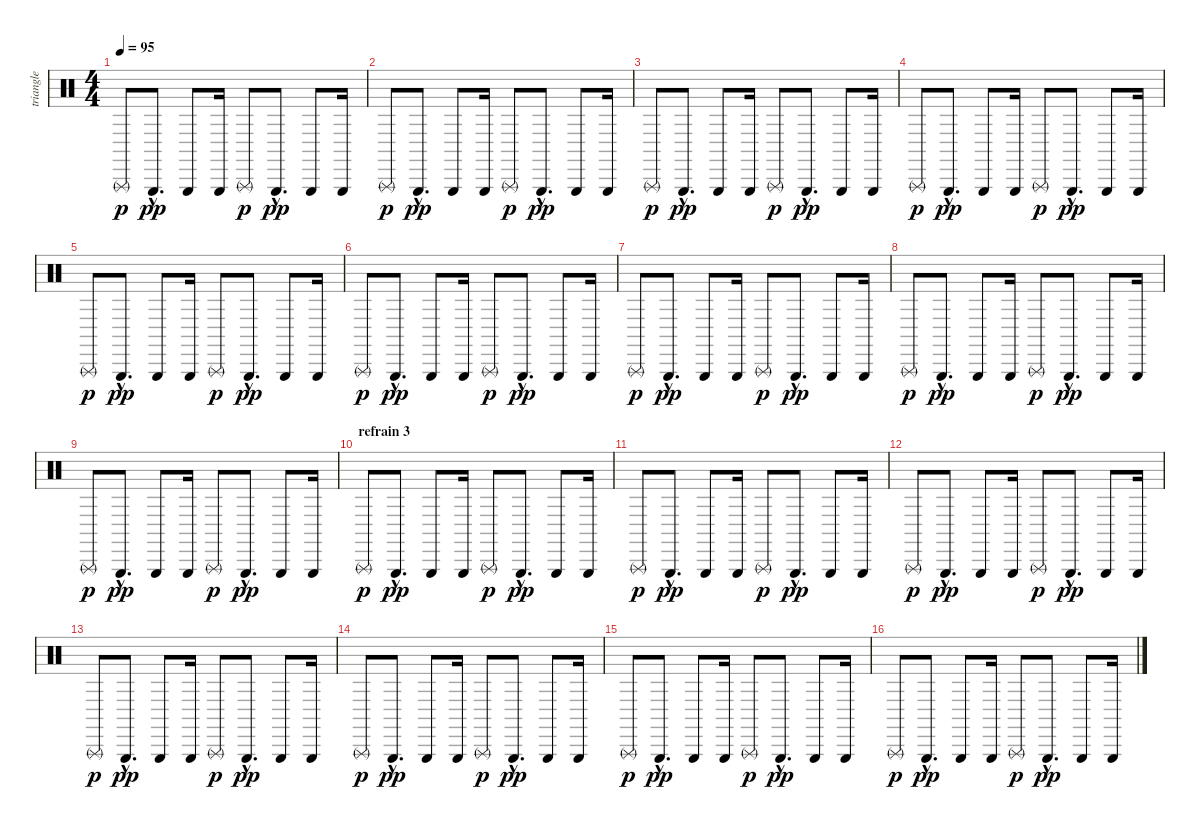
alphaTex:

\track ("triangle" "triangle") {instrument percussion}
\staff {score}
\articulation defaults
\ts (4 4)
\tempo 95
\clef neutral
\ks c "Triangle (rnute)".8{dy p} "Triangle (hit)"{hac}.8{d dy pp} "Triangle (hit)".8 "Triangle (hit)".16 "Triangle (rnute)".8{dy p} "Triangle (hit)"{hac}.8{d dy pp} "Triangle (hit)".8 "Triangle (hit)".16
|
"Triangle (rnute)".8{dy p} "Triangle (hit)"{hac}.8{d dy pp} "Triangle (hit)".8 "Triangle (hit)".16 "Triangle (rnute)".8{dy p} "Triangle (hit)"{hac}.8{d dy pp} "Triangle (hit)".8 "Triangle (hit)".16 |
"Triangle (rnute)".8{dy p} "Triangle (hit)"{hac}.8{d dy pp} "Triangle (hit)".8 "Triangle (hit)".16 "Triangle (rnute)".8{dy p} "Triangle (hit)"{hac}.8{d dy pp} "Triangle (hit)".8 "Triangle (hit)".16 |
"Triangle (rnute)".8{dy p} "Triangle (hit)"{hac}.8{d dy pp} "Triangle (hit)".8 "Triangle (hit)".16 "Triangle (rnute)".8{dy p} "Triangle (hit)"{hac}.8{d dy pp} "Triangle (hit)".8 "Triangle (hit)".16 |
"Triangle (rnute)".8{dy p} "Triangle (hit)"{hac}.8{d dy pp} "Triangle (hit)".8 "Triangle (hit)".16 "Triangle (rnute)".8{dy p} "Triangle (hit)"{hac}.8{d dy pp} "Triangle (hit)".8 "Triangle (hit)".16 |
"Triangle (rnute)".8{dy p} "Triangle (hit)"{hac}.8{d dy pp} "Triangle (hit)".8 "Triangle (hit)".16 "Triangle (rnute)".8{dy p} "Triangle (hit)"{hac}.8{d dy pp} "Triangle (hit)".8 "Triangle (hit)".16 |
"Triangle (rnute)".8{dy p} "Triangle (hit)"{hac}.8{d dy pp} "Triangle (hit)".8 "Triangle (hit)".16 "Triangle (rnute)".8{dy p} "Triangle (hit)"{hac}.8{d dy pp} "Triangle (hit)".8 "Triangle (hit)".16 |
"Triangle (rnute)".8{dy p} "Triangle (hit)"{hac}.8{d dy pp} "Triangle (hit)".8 "Triangle (hit)".16 "Triangle (rnute)".8{dy p} "Triangle (hit)"{hac}.8{d dy pp} "Triangle (hit)".8 "Triangle (hit)".16 |
"Triangle (rnute)".8{dy p} "Triangle (hit)"{hac}.8{d dy pp} "Triangle (hit)".8 "Triangle (hit)".16 "Triangle (rnute)".8{dy p} "Triangle (hit)"{hac}.8{d dy pp} "Triangle (hit)".8 "Triangle (hit)".16 |
\section ("" "refrain 3")
"Triangle (rnute)".8{dy p} "Triangle (hit)"{hac}.8{d dy pp} "Triangle (hit)".8 "Triangle (hit)".16 "Triangle (rnute)".8{dy p} "Triangle (hit)"{hac}.8{d dy pp} "Triangle (hit)".8 "Triangle (hit)".16 |
"Triangle (rnute)".8{dy p} "Triangle (hit)"{hac}.8{d dy pp} "Triangle (hit)".8 "Triangle (hit)".16 "Triangle (rnute)".8{dy p} "Triangle (hit)"{hac}.8{d dy pp} "Triangle (hit)".8 "Triangle (hit)".16 |
"Triangle (rnute)".8{dy p} "Triangle (hit)"{hac}.8{d dy pp} "Triangle (hit)".8 "Triangle (hit)".16 "Triangle (rnute)".8{dy p} "Triangle (hit)"{hac}.8{d dy pp} "Triangle (hit)".8 "Triangle (hit)".16 |
"Triangle (rnute)".8{dy p} "Triangle (hit)"{hac}.8{d dy pp} "Triangle (hit)".8 "Triangle (hit)".16 "Triangle (rnute)".8{dy p} "Triangle (hit)"{hac}.8{d dy pp} "Triangle (hit)".8 "Triangle (hit)".16 |
"Triangle (rnute)".8{dy p} "Triangle (hit)"{hac}.8{d dy pp} "Triangle (hit)".8 "Triangle (hit)".16 "Triangle (rnute)".8{dy p} "Triangle (hit)"{hac}.8{d dy pp} "Triangle (hit)".8 "Triangle (hit)".16 |
"Triangle (rnute)".8{dy p} "Triangle (hit)"{hac}.8{d dy pp} "Triangle (hit)".8 "Triangle (hit)".16 "Triangle (rnute)".8{dy p} "Triangle (hit)"{hac}.8{d dy pp} "Triangle (hit)".8 "Triangle (hit)".16 |
"Triangle (rnute)".8{dy p} "Triangle (hit)"{hac}.8{d dy pp} "Triangle (hit)".8 "Triangle (hit)".16 "Triangle (rnute)".8{dy p} "Triangle (hit)"{hac}.8{d dy pp} "Triangle (hit)".8 "Triangle (hit)".16
